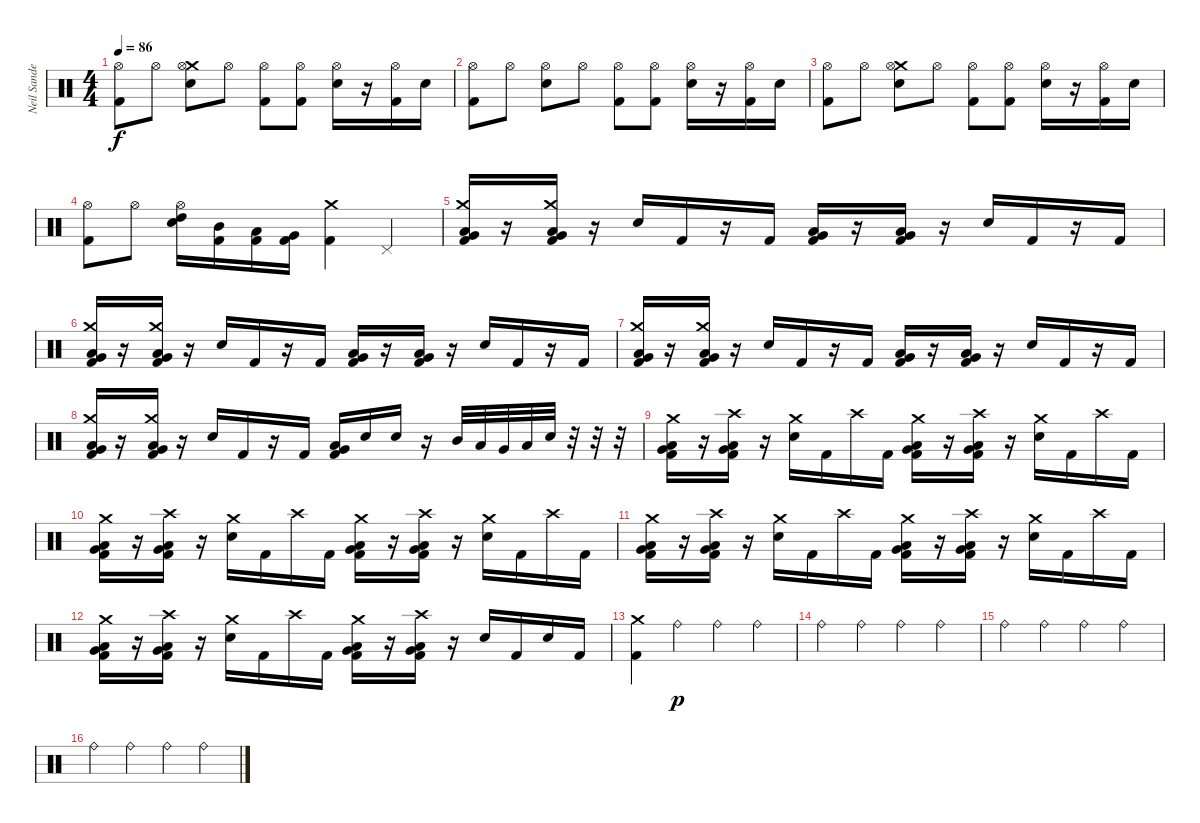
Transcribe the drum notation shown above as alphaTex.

\track ("Neil Sanderson" "Neil Sande") {instrument percussion}
\staff {score}
\articulation defaults
\ts (4 4)
\tempo 86
\clef neutral
\ks c
("Kick (hit) 2" "Hi-Hat (open)").8{dy f} "Hi-Hat (open)".8 ("Snare (hit) 2" "Crash medium (hit)" "Hi-Hat (open)").8 "Hi-Hat (open)".8 ("Kick (hit) 2" "Hi-Hat (open)").8 ("Kick (hit) 2" "Hi-Hat (open)").8 ("Snare (hit) 2" "Hi-Hat (open)").16 r.16 ("Kick (hit) 2" "Hi-Hat (open)").16 "Snare (hit) 2".16 |
("Kick (hit) 2" "Hi-Hat (open)").8 "Hi-Hat (open)".8 ("Snare (hit) 2" "Hi-Hat (open)").8 "Hi-Hat (open)".8 ("Kick (hit) 2" "Hi-Hat (open)").8 ("Kick (hit) 2" "Hi-Hat (open)").8 ("Snare (hit) 2" "Hi-Hat (open)").16 r.16 ("Kick (hit) 2" "Hi-Hat (open)").16 "Snare (hit) 2".16 |
("Kick (hit) 2" "Hi-Hat (open)").8 "Hi-Hat (open)".8 ("Snare (hit) 2" "Crash medium (hit)" "Hi-Hat (open)").8 "Hi-Hat (open)".8 ("Kick (hit) 2" "Hi-Hat (open)").8 ("Kick (hit) 2" "Hi-Hat (open)").8 ("Snare (hit) 2" "Hi-Hat (open)").16 r.16 ("Kick (hit) 2" "Hi-Hat (open)").16 "Snare (hit) 2".16 |
("Kick (hit) 2" "Hi-Hat (open)").8 "Hi-Hat (open)".8 ("Snare (hit) 2" "High Tom (hit)" "Hi-Hat (open)").16 ("Kick (hit) 2" "Mid Tom (hit)").16 ("Kick (hit) 2" "Low Tom (hit)").16 ("Kick (hit) 2" "Very Low Tom (hit)").16 ("Kick (hit) 2" "Crash medium (hit)").4 "Pedal Hi-Hat (hit)".4 |
("Low Floor Tom (hit)" "Very Low Tom (hit)" "Kick (hit) 2" "Crash medium (hit)").16 r.16 ("Low Floor Tom (hit)" "Very Low Tom (hit)" "Kick (hit) 2" "Crash medium (hit)").16 r.16 "Snare (hit) 2".16 "Kick (hit) 2".16 r.16 "Kick (hit) 2".16 ("Low Floor Tom (hit)" "Very Low Tom (hit)" "Kick (hit) 2").16 r.16 ("Low Floor Tom (hit)" "Very Low Tom (hit)" "Kick (hit) 2").16 r.16 "Snare (hit) 2".16 "Kick (hit) 2".16 r.16 "Kick (hit) 2".16 |
("Low Floor Tom (hit)" "Very Low Tom (hit)" "Kick (hit) 2" "Crash medium (hit)").16 r.16 ("Low Floor Tom (hit)" "Very Low Tom (hit)" "Kick (hit) 2" "Crash medium (hit)").16 r.16 "Snare (hit) 2".16 "Kick (hit) 2".16 r.16 "Kick (hit) 2".16 ("Low Floor Tom (hit)" "Very Low Tom (hit)" "Kick (hit) 2").16 r.16 ("Low Floor Tom (hit)" "Very Low Tom (hit)" "Kick (hit) 2").16 r.16 "Snare (hit) 2".16 "Kick (hit) 2".16 r.16 "Kick (hit) 2".16 |
("Low Floor Tom (hit)" "Very Low Tom (hit)" "Kick (hit) 2" "Crash medium (hit)").16 r.16 ("Low Floor Tom (hit)" "Very Low Tom (hit)" "Kick (hit) 2" "Crash medium (hit)").16 r.16 "Snare (hit) 2".16 "Kick (hit) 2".16 r.16 "Kick (hit) 2".16 ("Low Floor Tom (hit)" "Very Low Tom (hit)" "Kick (hit) 2").16 r.16 ("Low Floor Tom (hit)" "Very Low Tom (hit)" "Kick (hit) 2").16 r.16 "Snare (hit) 2".16 "Kick (hit) 2".16 r.16 "Kick (hit) 2".16 |
("Low Floor Tom (hit)" "Very Low Tom (hit)" "Kick (hit) 2" "Crash medium (hit)").16 r.16 ("Low Floor Tom (hit)" "Very Low Tom (hit)" "Kick (hit) 2" "Crash medium (hit)").16 r.16 "Snare (hit) 2".16 "Kick (hit) 2".16 r.16 "Kick (hit) 2".16 ("Low Floor Tom (hit)" "Very Low Tom (hit)" "Kick (hit) 2").16 "Snare (hit) 2".16 "Snare (hit) 2".16 r.16 "Mid Tom (hit)".32 "Low Tom (hit)".32 "Very Low Tom (hit)".32 "Low Floor Tom (hit)".32 "Snare (hit) 2".32 r.32 r.32 r.32 |
("Low Floor Tom (hit)" "Very Low Tom (hit)" "Kick (hit) 2" "Crash medium (hit)").16 r.16 ("Low Floor Tom (hit)" "Very Low Tom (hit)" "Kick (hit) 2" "Crash high (hit)").16 r.16 ("Snare (hit) 2" "Crash medium (hit)").16 "Kick (hit) 2".16 "Crash high (hit)".16 "Kick (hit) 2".16 ("Low Floor Tom (hit)" "Very Low Tom (hit)" "Kick (hit) 2" "Crash medium (hit)").16 r.16 ("Low Floor Tom (hit)" "Very Low Tom (hit)" "Kick (hit) 2" "Crash high (hit)").16 r.16 ("Snare (hit) 2" "Crash medium (hit)").16 "Kick (hit) 2".16 "Crash high (hit)".16 "Kick (hit) 2".16 |
("Low Floor Tom (hit)" "Very Low Tom (hit)" "Kick (hit) 2" "Crash medium (hit)").16 r.16 ("Low Floor Tom (hit)" "Very Low Tom (hit)" "Kick (hit) 2" "Crash high (hit)").16 r.16 ("Snare (hit) 2" "Crash medium (hit)").16 "Kick (hit) 2".16 "Crash high (hit)".16 "Kick (hit) 2".16 ("Low Floor Tom (hit)" "Very Low Tom (hit)" "Kick (hit) 2" "Crash medium (hit)").16 r.16 ("Low Floor Tom (hit)" "Very Low Tom (hit)" "Kick (hit) 2" "Crash high (hit)").16 r.16 ("Snare (hit) 2" "Crash medium (hit)").16 "Kick (hit) 2".16 "Crash high (hit)".16 "Kick (hit) 2".16 |
("Low Floor Tom (hit)" "Very Low Tom (hit)" "Kick (hit) 2" "Crash medium (hit)").16 r.16 ("Low Floor Tom (hit)" "Very Low Tom (hit)" "Kick (hit) 2" "Crash high (hit)").16 r.16 ("Snare (hit) 2" "Crash medium (hit)").16 "Kick (hit) 2".16 "Crash high (hit)".16 "Kick (hit) 2".16 ("Low Floor Tom (hit)" "Very Low Tom (hit)" "Kick (hit) 2" "Crash medium (hit)").16 r.16 ("Low Floor Tom (hit)" "Very Low Tom (hit)" "Kick (hit) 2" "Crash high (hit)").16 r.16 ("Snare (hit) 2" "Crash medium (hit)").16 "Kick (hit) 2".16 "Crash high (hit)".16 "Kick (hit) 2".16 |
("Low Floor Tom (hit)" "Very Low Tom (hit)" "Kick (hit) 2" "Crash medium (hit)").16 r.16 ("Low Floor Tom (hit)" "Very Low Tom (hit)" "Kick (hit) 2" "Crash high (hit)").16 r.16 ("Snare (hit) 2" "Crash medium (hit)").16 "Kick (hit) 2".16 "Crash high (hit)".16 "Kick (hit) 2".16 ("Low Floor Tom (hit)" "Very Low Tom (hit)" "Kick (hit) 2" "Crash medium (hit)").16 r.16 ("Low Floor Tom (hit)" "Very Low Tom (hit)" "Kick (hit) 2" "Crash high (hit)").16 r.16 "Snare (hit) 2".16 "Kick (hit) 2".16 "Snare (hit) 2".16 "Kick (hit) 2".16 |
("Kick (hit) 2" "Crash medium (hit)").4 "Ride (bell)".4{dy p} "Ride (bell)".4 "Ride (bell)".4 |
"Ride (bell)".4 "Ride (bell)".4 "Ride (bell)".4 "Ride (bell)".4 |
"Ride (bell)".4 "Ride (bell)".4 "Ride (bell)".4 "Ride (bell)".4 |
"Ride (bell)".4 "Ride (bell)".4 "Ride (bell)".4 "Ride (bell)".4
